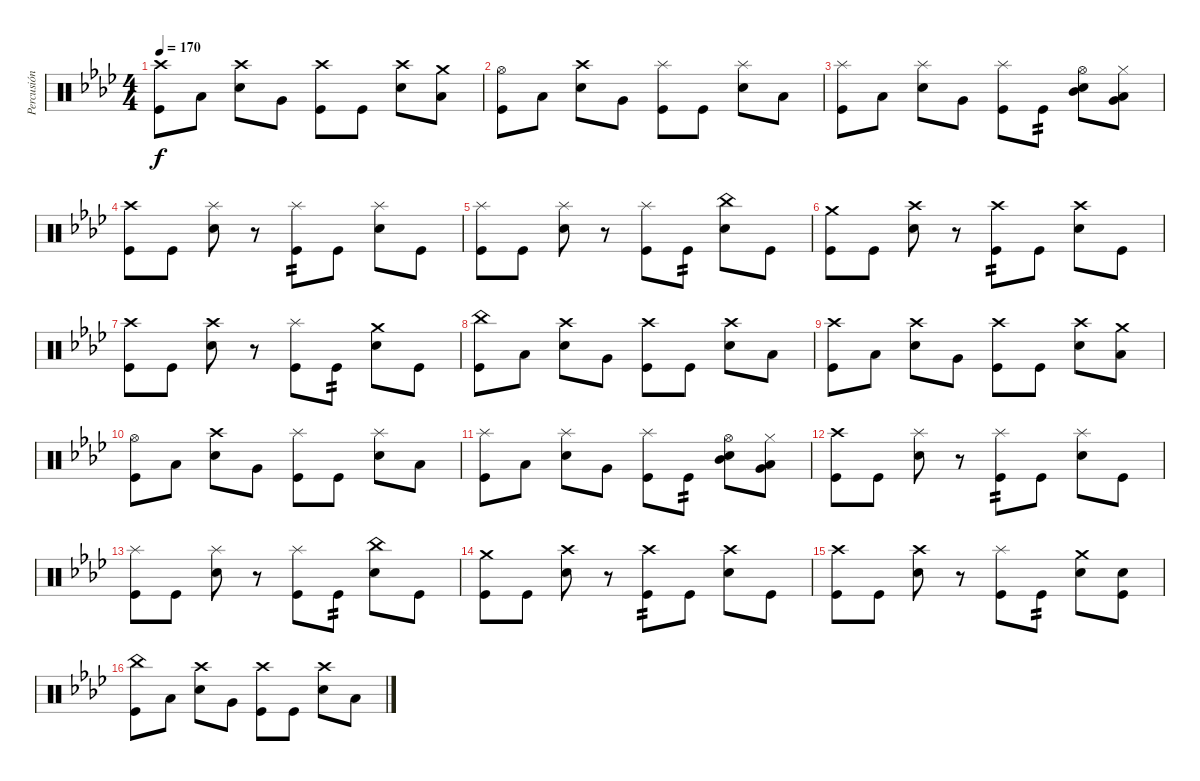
\track ("Percusión" "Percusión") {instrument percussion}
\staff {score}
\articulation defaults
\ts (4 4)
\tempo 170
\clef neutral
\ks ab
("Crash high (hit)" "Kick (hit)").8{dy f} "Low Floor Tom (hit)".8 ("Crash high (hit)" "Electric Snare (hit)").8 "Very Low Tom (hit)".8 ("Crash high (hit)" "Kick (hit)").8 "Kick (hit)".8 ("Crash high (hit)" "Electric Snare (hit)").8 ("Crash medium (hit)" "Low Tom (hit)").8 |
("Hi-Hat (open)" "Kick (hit)").8 "Low Floor Tom (hit)".8 ("Crash high (hit)" "Electric Snare (hit)").8 "Very Low Tom (hit)".8 ("Splash (hit)" "Kick (hit)").8 "Kick (hit)".8 ("Splash (hit)" "Electric Snare (hit)").8 "Low Tom (hit)".8 |
("Splash (hit)" "Kick (hit)").8 "Low Floor Tom (hit)".8 ("Splash (hit)" "Electric Snare (hit)").8 "Very Low Tom (hit)".8 ("Splash (hit)" "Kick (hit)").8 "Kick (hit)".8{tp 2} ("Hi-Hat (open)" "Mid Tom (hit)" "Electric Snare (hit)").8 ("Hi-Hat (closed)" "Low Tom (hit)" "Very Low Tom (hit)").8 |
("Crash high (hit)" "Kick (hit)").8 "Kick (hit)".8 ("Splash (hit)" "Electric Snare (hit)").8 r.8 ("Splash (hit)" "Kick (hit)").8{tp 2} "Kick (hit)".8 ("Splash (hit)" "Electric Snare (hit)").8 "Kick (hit)".8 |
("Splash (hit)" "Kick (hit)").8 "Kick (hit)".8 ("Splash (hit)" "Electric Snare (hit)").8 r.8 ("Splash (hit)" "Kick (hit)").8 "Kick (hit)".8{tp 2} ("China (hit)" "Electric Snare (hit)").8 "Kick (hit)".8 |
("Crash medium (hit)" "Kick (hit)").8 "Kick (hit)".8 ("Crash high (hit)" "Electric Snare (hit)").8 r.8 ("Crash high (hit)" "Kick (hit)").8{tp 2} "Kick (hit)".8 ("Crash high (hit)" "Electric Snare (hit)").8 "Kick (hit)".8 |
("Crash high (hit)" "Kick (hit)").8 "Kick (hit)".8 ("Crash high (hit)" "Electric Snare (hit)").8 r.8 ("Splash (hit)" "Kick (hit)").8 "Kick (hit)".8{tp 2} ("Crash medium (hit)" "Electric Snare (hit)").8 "Kick (hit)".8 |
("China (hit)" "Kick (hit)").8 "Low Floor Tom (hit)".8 ("Crash high (hit)" "Electric Snare (hit)").8 "Very Low Tom (hit)".8 ("Crash high (hit)" "Kick (hit)").8 "Kick (hit)".8 ("Crash high (hit)" "Electric Snare (hit)").8 "Low Tom (hit)".8 |
("Crash high (hit)" "Kick (hit)").8 "Low Floor Tom (hit)".8 ("Crash high (hit)" "Electric Snare (hit)").8 "Very Low Tom (hit)".8 ("Crash high (hit)" "Kick (hit)").8 "Kick (hit)".8 ("Crash high (hit)" "Electric Snare (hit)").8 ("Crash medium (hit)" "Low Tom (hit)").8 |
("Hi-Hat (open)" "Kick (hit)").8 "Low Floor Tom (hit)".8 ("Crash high (hit)" "Electric Snare (hit)").8 "Very Low Tom (hit)".8 ("Splash (hit)" "Kick (hit)").8 "Kick (hit)".8 ("Splash (hit)" "Electric Snare (hit)").8 "Low Tom (hit)".8 |
("Splash (hit)" "Kick (hit)").8 "Low Floor Tom (hit)".8 ("Splash (hit)" "Electric Snare (hit)").8 "Very Low Tom (hit)".8 ("Splash (hit)" "Kick (hit)").8 "Kick (hit)".8{tp 2} ("Hi-Hat (open)" "Mid Tom (hit)" "Electric Snare (hit)").8 ("Hi-Hat (closed)" "Low Tom (hit)" "Very Low Tom (hit)").8 |
("Crash high (hit)" "Kick (hit)").8 "Kick (hit)".8 ("Splash (hit)" "Electric Snare (hit)").8 r.8 ("Splash (hit)" "Kick (hit)").8{tp 2} "Kick (hit)".8 ("Splash (hit)" "Electric Snare (hit)").8 "Kick (hit)".8 |
("Splash (hit)" "Kick (hit)").8 "Kick (hit)".8 ("Splash (hit)" "Electric Snare (hit)").8 r.8 ("Splash (hit)" "Kick (hit)").8 "Kick (hit)".8{tp 2} ("China (hit)" "Electric Snare (hit)").8 "Kick (hit)".8 |
("Crash medium (hit)" "Kick (hit)").8 "Kick (hit)".8 ("Crash high (hit)" "Electric Snare (hit)").8 r.8 ("Crash high (hit)" "Kick (hit)").8{tp 2} "Kick (hit)".8 ("Crash high (hit)" "Electric Snare (hit)").8 "Kick (hit)".8 |
("Crash high (hit)" "Kick (hit)").8 "Kick (hit)".8 ("Crash high (hit)" "Electric Snare (hit)").8 r.8 ("Splash (hit)" "Kick (hit)").8 "Kick (hit)".8{tp 2} ("Crash medium (hit)" "Electric Snare (hit)").8 ("Electric Snare (hit)" "Kick (hit)").8 |
("China (hit)" "Kick (hit)").8 "Low Floor Tom (hit)".8 ("Crash high (hit)" "Electric Snare (hit)").8 "Very Low Tom (hit)".8 ("Crash high (hit)" "Kick (hit)").8 "Kick (hit)".8 ("Crash high (hit)" "Electric Snare (hit)").8 "Low Tom (hit)".8
